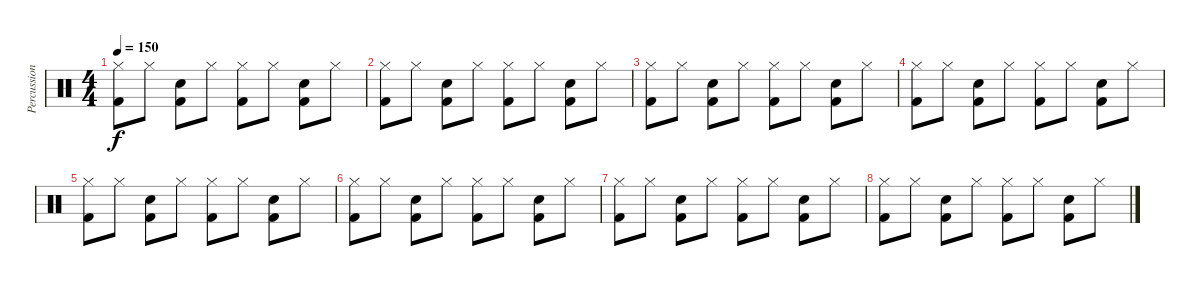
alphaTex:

\track ("Percussion" "Percussion") {instrument percussion}
\staff {score}
\articulation defaults
\ts (4 4)
\tempo 150
\clef neutral
\ks c
("Hi-Hat (closed)" "Kick (hit) 2").8{dy f} "Hi-Hat (closed)".8 ("Snare (hit) 2" "Kick (hit) 2").8 "Hi-Hat (closed)".8 ("Hi-Hat (closed)" "Kick (hit) 2").8 "Hi-Hat (closed)".8 ("Snare (hit) 2" "Kick (hit) 2").8 "Hi-Hat (closed)".8 |
("Hi-Hat (closed)" "Kick (hit) 2").8 "Hi-Hat (closed)".8 ("Snare (hit) 2" "Kick (hit) 2").8 "Hi-Hat (closed)".8 ("Hi-Hat (closed)" "Kick (hit) 2").8 "Hi-Hat (closed)".8 ("Snare (hit) 2" "Kick (hit) 2").8 "Hi-Hat (closed)".8 |
("Hi-Hat (closed)" "Kick (hit) 2").8 "Hi-Hat (closed)".8 ("Snare (hit) 2" "Kick (hit) 2").8 "Hi-Hat (closed)".8 ("Hi-Hat (closed)" "Kick (hit) 2").8 "Hi-Hat (closed)".8 ("Snare (hit) 2" "Kick (hit) 2").8 "Hi-Hat (closed)".8 |
("Hi-Hat (closed)" "Kick (hit) 2").8 "Hi-Hat (closed)".8 ("Snare (hit) 2" "Kick (hit) 2").8 "Hi-Hat (closed)".8 ("Hi-Hat (closed)" "Kick (hit) 2").8 "Hi-Hat (closed)".8 ("Snare (hit) 2" "Kick (hit) 2").8 "Hi-Hat (closed)".8 |
("Hi-Hat (closed)" "Kick (hit) 2").8 "Hi-Hat (closed)".8 ("Snare (hit) 2" "Kick (hit) 2").8 "Hi-Hat (closed)".8 ("Hi-Hat (closed)" "Kick (hit) 2").8 "Hi-Hat (closed)".8 ("Snare (hit) 2" "Kick (hit) 2").8 "Hi-Hat (closed)".8 |
("Hi-Hat (closed)" "Kick (hit) 2").8 "Hi-Hat (closed)".8 ("Snare (hit) 2" "Kick (hit) 2").8 "Hi-Hat (closed)".8 ("Hi-Hat (closed)" "Kick (hit) 2").8 "Hi-Hat (closed)".8 ("Snare (hit) 2" "Kick (hit) 2").8 "Hi-Hat (closed)".8 |
("Hi-Hat (closed)" "Kick (hit) 2").8 "Hi-Hat (closed)".8 ("Snare (hit) 2" "Kick (hit) 2").8 "Hi-Hat (closed)".8 ("Hi-Hat (closed)" "Kick (hit) 2").8 "Hi-Hat (closed)".8 ("Snare (hit) 2" "Kick (hit) 2").8 "Hi-Hat (closed)".8 |
("Hi-Hat (closed)" "Kick (hit) 2").8 "Hi-Hat (closed)".8 ("Snare (hit) 2" "Kick (hit) 2").8 "Hi-Hat (closed)".8 ("Hi-Hat (closed)" "Kick (hit) 2").8 "Hi-Hat (closed)".8 ("Snare (hit) 2" "Kick (hit) 2").8 "Hi-Hat (closed)".8
